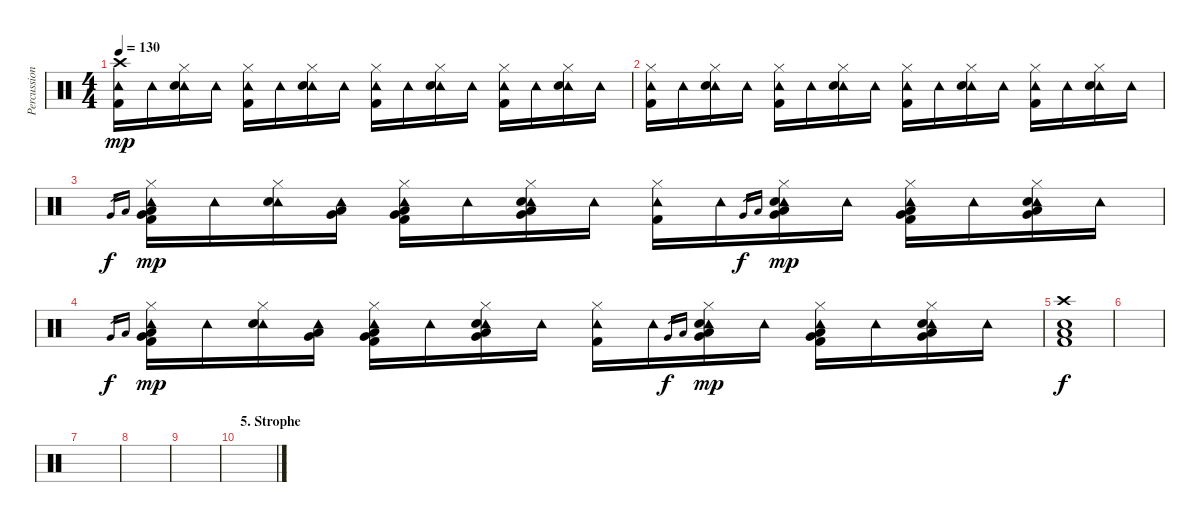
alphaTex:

\track ("Percussion (Bela)" "Percussion") {instrument percussion}
\staff {score}
\articulation defaults
\ts (4 4)
\tempo 130
\clef neutral
\ks c
("Crash high (hit)" "Tambourine (hit)" "Kick (hit) 2").16{dy mp} "Tambourine (hit)".16 ("Hi-Hat (closed)" "Tambourine (hit)" "Electric Snare (hit)").16 "Tambourine (hit)".16 ("Hi-Hat (closed)" "Tambourine (hit)" "Kick (hit) 2").16 "Tambourine (hit)".16 ("Hi-Hat (closed)" "Tambourine (hit)" "Electric Snare (hit)").16 "Tambourine (hit)".16 ("Hi-Hat (closed)" "Tambourine (hit)" "Kick (hit) 2").16 "Tambourine (hit)".16 ("Hi-Hat (closed)" "Tambourine (hit)" "Electric Snare (hit)").16 "Tambourine (hit)".16 ("Hi-Hat (closed)" "Tambourine (hit)" "Kick (hit) 2").16 "Tambourine (hit)".16 ("Hi-Hat (closed)" "Tambourine (hit)" "Electric Snare (hit)").16 "Tambourine (hit)".16 |
("Hi-Hat (closed)" "Tambourine (hit)" "Kick (hit) 2").16 "Tambourine (hit)".16 ("Hi-Hat (closed)" "Tambourine (hit)" "Electric Snare (hit)").16 "Tambourine (hit)".16 ("Hi-Hat (closed)" "Tambourine (hit)" "Kick (hit) 2").16 "Tambourine (hit)".16 ("Hi-Hat (closed)" "Tambourine (hit)" "Electric Snare (hit)").16 "Tambourine (hit)".16 ("Hi-Hat (closed)" "Tambourine (hit)" "Kick (hit) 2").16 "Tambourine (hit)".16 ("Hi-Hat (closed)" "Tambourine (hit)" "Electric Snare (hit)").16 "Tambourine (hit)".16 ("Hi-Hat (closed)" "Tambourine (hit)" "Kick (hit) 2").16 "Tambourine (hit)".16 ("Hi-Hat (closed)" "Tambourine (hit)" "Electric Snare (hit)").16 "Tambourine (hit)".16 |
"Very Low Tom (hit)".16{gr dy f} "Low Floor Tom (hit)".16{gr} ("Hi-Hat (closed)" "Tambourine (hit)" "Very Low Tom (hit)" "Low Floor Tom (hit)" "Kick (hit) 2").16{dy mp} "Tambourine (hit)".16 ("Hi-Hat (closed)" "Tambourine (hit)" "Electric Snare (hit)").16 ("Tambourine (hit)" "Very Low Tom (hit)" "Low Floor Tom (hit)").16 ("Hi-Hat (closed)" "Tambourine (hit)" "Very Low Tom (hit)" "Low Floor Tom (hit)" "Kick (hit) 2").16 "Tambourine (hit)".16 ("Hi-Hat (closed)" "Tambourine (hit)" "Electric Snare (hit)" "Very Low Tom (hit)" "Low Floor Tom (hit)").16 "Tambourine (hit)".16 ("Hi-Hat (closed)" "Tambourine (hit)" "Kick (hit) 2").16 "Tambourine (hit)".16 "Very Low Tom (hit)".16{gr dy f} "Low Floor Tom (hit)".16{gr} ("Hi-Hat (closed)" "Tambourine (hit)" "Electric Snare (hit)" "Very Low Tom (hit)" "Low Floor Tom (hit)").16{dy mp} "Tambourine (hit)".16 ("Hi-Hat (closed)" "Tambourine (hit)" "Very Low Tom (hit)" "Low Floor Tom (hit)" "Kick (hit) 2").16 "Tambourine (hit)".16 ("Hi-Hat (closed)" "Tambourine (hit)" "Electric Snare (hit)" "Very Low Tom (hit)" "Low Floor Tom (hit)").16 "Tambourine (hit)".16 |
"Very Low Tom (hit)".16{gr dy f} "Low Floor Tom (hit)".16{gr} ("Hi-Hat (closed)" "Tambourine (hit)" "Very Low Tom (hit)" "Low Floor Tom (hit)" "Kick (hit) 2").16{dy mp} "Tambourine (hit)".16 ("Hi-Hat (closed)" "Tambourine (hit)" "Electric Snare (hit)").16 ("Tambourine (hit)" "Very Low Tom (hit)" "Low Floor Tom (hit)").16 ("Hi-Hat (closed)" "Tambourine (hit)" "Very Low Tom (hit)" "Low Floor Tom (hit)" "Kick (hit) 2").16 "Tambourine (hit)".16 ("Hi-Hat (closed)" "Tambourine (hit)" "Electric Snare (hit)" "Very Low Tom (hit)" "Low Floor Tom (hit)").16 "Tambourine (hit)".16 ("Hi-Hat (closed)" "Tambourine (hit)" "Kick (hit) 2").16 "Tambourine (hit)".16 "Very Low Tom (hit)".16{gr dy f} "Low Floor Tom (hit)".16{gr} ("Hi-Hat (closed)" "Tambourine (hit)" "Electric Snare (hit)" "Very Low Tom (hit)" "Low Floor Tom (hit)").16{dy mp} "Tambourine (hit)".16 ("Hi-Hat (closed)" "Tambourine (hit)" "Very Low Tom (hit)" "Low Floor Tom (hit)" "Kick (hit) 2").16 "Tambourine (hit)".16 ("Hi-Hat (closed)" "Tambourine (hit)" "Electric Snare (hit)" "Very Low Tom (hit)" "Low Floor Tom (hit)").16 "Tambourine (hit)".16 |
("Crash high (hit)" "Electric Snare (hit)" "Low Floor Tom (hit)" "Kick (hit) 2").1{dy f} |
|
|
|
|
\section ("" "5. Strophe")
